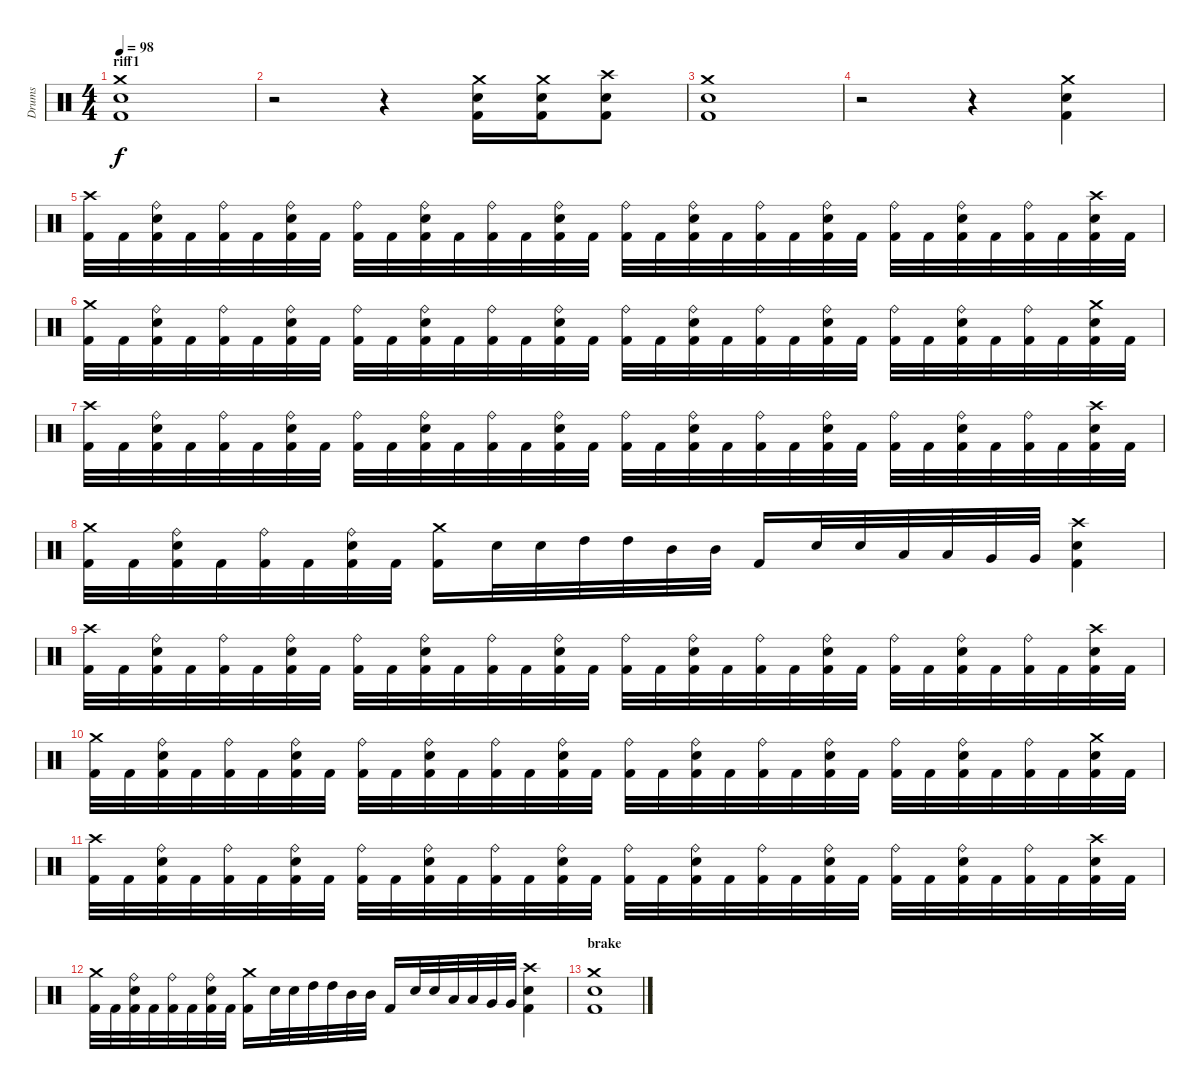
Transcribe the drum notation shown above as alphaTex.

\track ("Drums" "Drums") {instrument percussion}
\staff {score}
\articulation defaults
\ts (4 4)
\section ("" "riff1")
\tempo 98
\clef neutral
\ks c
("Crash medium (hit)" "Electric Snare (hit)" "Kick (hit) 2").1{dy f} |
r.2 r.4 ("Crash medium (hit)" "Electric Snare (hit)" "Kick (hit) 2").16 ("Crash medium (hit)" "Electric Snare (hit)" "Kick (hit) 2").16 ("Crash high (hit)" "Electric Snare (hit)" "Kick (hit) 2").8 |
("Crash medium (hit)" "Electric Snare (hit)" "Kick (hit) 2").1 |
r.2 r.4 ("Crash medium (hit)" "Electric Snare (hit)" "Kick (hit) 2").4 |
("Crash high (hit)" "Kick (hit) 2").32 "Kick (hit) 2".32 ("Ride (bell)" "Electric Snare (hit)" "Kick (hit) 2").32 "Kick (hit) 2".32 ("Ride (bell)" "Kick (hit) 2").32 "Kick (hit) 2".32 ("Ride (bell)" "Electric Snare (hit)" "Kick (hit) 2").32 "Kick (hit) 2".32 ("Ride (bell)" "Kick (hit) 2").32 "Kick (hit) 2".32 ("Ride (bell)" "Electric Snare (hit)" "Kick (hit) 2").32 "Kick (hit) 2".32 ("Ride (bell)" "Kick (hit) 2").32 "Kick (hit) 2".32 ("Ride (bell)" "Electric Snare (hit)" "Kick (hit) 2").32 "Kick (hit) 2".32 ("Ride (bell)" "Kick (hit) 2").32 "Kick (hit) 2".32 ("Ride (bell)" "Electric Snare (hit)" "Kick (hit) 2").32 "Kick (hit) 2".32 ("Ride (bell)" "Kick (hit) 2").32 "Kick (hit) 2".32 ("Ride (bell)" "Electric Snare (hit)" "Kick (hit) 2").32 "Kick (hit) 2".32 ("Ride (bell)" "Kick (hit) 2").32 "Kick (hit) 2".32 ("Ride (bell)" "Electric Snare (hit)" "Kick (hit) 2").32 "Kick (hit) 2".32 ("Ride (bell)" "Kick (hit) 2").32 "Kick (hit) 2".32 ("Crash high (hit)" "Electric Snare (hit)" "Kick (hit) 2").32 "Kick (hit) 2".32 |
("Crash medium (hit)" "Kick (hit) 2").32 "Kick (hit) 2".32 ("Ride (bell)" "Electric Snare (hit)" "Kick (hit) 2").32 "Kick (hit) 2".32 ("Ride (bell)" "Kick (hit) 2").32 "Kick (hit) 2".32 ("Ride (bell)" "Electric Snare (hit)" "Kick (hit) 2").32 "Kick (hit) 2".32 ("Ride (bell)" "Kick (hit) 2").32 "Kick (hit) 2".32 ("Ride (bell)" "Electric Snare (hit)" "Kick (hit) 2").32 "Kick (hit) 2".32 ("Ride (bell)" "Kick (hit) 2").32 "Kick (hit) 2".32 ("Ride (bell)" "Electric Snare (hit)" "Kick (hit) 2").32 "Kick (hit) 2".32 ("Ride (bell)" "Kick (hit) 2").32 "Kick (hit) 2".32 ("Ride (bell)" "Electric Snare (hit)" "Kick (hit) 2").32 "Kick (hit) 2".32 ("Ride (bell)" "Kick (hit) 2").32 "Kick (hit) 2".32 ("Ride (bell)" "Electric Snare (hit)" "Kick (hit) 2").32 "Kick (hit) 2".32 ("Ride (bell)" "Kick (hit) 2").32 "Kick (hit) 2".32 ("Ride (bell)" "Electric Snare (hit)" "Kick (hit) 2").32 "Kick (hit) 2".32 ("Ride (bell)" "Kick (hit) 2").32 "Kick (hit) 2".32 ("Crash medium (hit)" "Electric Snare (hit)" "Kick (hit) 2").32 "Kick (hit) 2".32 |
("Crash high (hit)" "Kick (hit) 2").32 "Kick (hit) 2".32 ("Ride (bell)" "Electric Snare (hit)" "Kick (hit) 2").32 "Kick (hit) 2".32 ("Ride (bell)" "Kick (hit) 2").32 "Kick (hit) 2".32 ("Ride (bell)" "Electric Snare (hit)" "Kick (hit) 2").32 "Kick (hit) 2".32 ("Ride (bell)" "Kick (hit) 2").32 "Kick (hit) 2".32 ("Ride (bell)" "Electric Snare (hit)" "Kick (hit) 2").32 "Kick (hit) 2".32 ("Ride (bell)" "Kick (hit) 2").32 "Kick (hit) 2".32 ("Ride (bell)" "Electric Snare (hit)" "Kick (hit) 2").32 "Kick (hit) 2".32 ("Ride (bell)" "Kick (hit) 2").32 "Kick (hit) 2".32 ("Ride (bell)" "Electric Snare (hit)" "Kick (hit) 2").32 "Kick (hit) 2".32 ("Ride (bell)" "Kick (hit) 2").32 "Kick (hit) 2".32 ("Ride (bell)" "Electric Snare (hit)" "Kick (hit) 2").32 "Kick (hit) 2".32 ("Ride (bell)" "Kick (hit) 2").32 "Kick (hit) 2".32 ("Ride (bell)" "Electric Snare (hit)" "Kick (hit) 2").32 "Kick (hit) 2".32 ("Ride (bell)" "Kick (hit) 2").32 "Kick (hit) 2".32 ("Crash high (hit)" "Electric Snare (hit)" "Kick (hit) 2").32 "Kick (hit) 2".32 |
("Crash medium (hit)" "Kick (hit) 2").32 "Kick (hit) 2".32 ("Ride (bell)" "Electric Snare (hit)" "Kick (hit) 2").32 "Kick (hit) 2".32 ("Ride (bell)" "Kick (hit) 2").32 "Kick (hit) 2".32 ("Ride (bell)" "Electric Snare (hit)" "Kick (hit) 2").32 "Kick (hit) 2".32 ("Crash medium (hit)" "Kick (hit) 2").16 "Electric Snare (hit)".32 "Electric Snare (hit)".32 "High Tom (hit)".32 "High Tom (hit)".32 "Mid Tom (hit)".32 "Mid Tom (hit)".32 "Kick (hit) 2".16 "Electric Snare (hit)".32 "Electric Snare (hit)".32 "Low Tom (hit)".32 "Low Tom (hit)".32 "Very Low Tom (hit)".32 "Very Low Tom (hit)".32 ("Crash high (hit)" "Electric Snare (hit)" "Kick (hit) 2").4 |
("Crash high (hit)" "Kick (hit) 2").32 "Kick (hit) 2".32 ("Ride (bell)" "Electric Snare (hit)" "Kick (hit) 2").32 "Kick (hit) 2".32 ("Ride (bell)" "Kick (hit) 2").32 "Kick (hit) 2".32 ("Ride (bell)" "Electric Snare (hit)" "Kick (hit) 2").32 "Kick (hit) 2".32 ("Ride (bell)" "Kick (hit) 2").32 "Kick (hit) 2".32 ("Ride (bell)" "Electric Snare (hit)" "Kick (hit) 2").32 "Kick (hit) 2".32 ("Ride (bell)" "Kick (hit) 2").32 "Kick (hit) 2".32 ("Ride (bell)" "Electric Snare (hit)" "Kick (hit) 2").32 "Kick (hit) 2".32 ("Ride (bell)" "Kick (hit) 2").32 "Kick (hit) 2".32 ("Ride (bell)" "Electric Snare (hit)" "Kick (hit) 2").32 "Kick (hit) 2".32 ("Ride (bell)" "Kick (hit) 2").32 "Kick (hit) 2".32 ("Ride (bell)" "Electric Snare (hit)" "Kick (hit) 2").32 "Kick (hit) 2".32 ("Ride (bell)" "Kick (hit) 2").32 "Kick (hit) 2".32 ("Ride (bell)" "Electric Snare (hit)" "Kick (hit) 2").32 "Kick (hit) 2".32 ("Ride (bell)" "Kick (hit) 2").32 "Kick (hit) 2".32 ("Crash high (hit)" "Electric Snare (hit)" "Kick (hit) 2").32 "Kick (hit) 2".32 |
("Crash medium (hit)" "Kick (hit) 2").32 "Kick (hit) 2".32 ("Ride (bell)" "Electric Snare (hit)" "Kick (hit) 2").32 "Kick (hit) 2".32 ("Ride (bell)" "Kick (hit) 2").32 "Kick (hit) 2".32 ("Ride (bell)" "Electric Snare (hit)" "Kick (hit) 2").32 "Kick (hit) 2".32 ("Ride (bell)" "Kick (hit) 2").32 "Kick (hit) 2".32 ("Ride (bell)" "Electric Snare (hit)" "Kick (hit) 2").32 "Kick (hit) 2".32 ("Ride (bell)" "Kick (hit) 2").32 "Kick (hit) 2".32 ("Ride (bell)" "Electric Snare (hit)" "Kick (hit) 2").32 "Kick (hit) 2".32 ("Ride (bell)" "Kick (hit) 2").32 "Kick (hit) 2".32 ("Ride (bell)" "Electric Snare (hit)" "Kick (hit) 2").32 "Kick (hit) 2".32 ("Ride (bell)" "Kick (hit) 2").32 "Kick (hit) 2".32 ("Ride (bell)" "Electric Snare (hit)" "Kick (hit) 2").32 "Kick (hit) 2".32 ("Ride (bell)" "Kick (hit) 2").32 "Kick (hit) 2".32 ("Ride (bell)" "Electric Snare (hit)" "Kick (hit) 2").32 "Kick (hit) 2".32 ("Ride (bell)" "Kick (hit) 2").32 "Kick (hit) 2".32 ("Crash medium (hit)" "Electric Snare (hit)" "Kick (hit) 2").32 "Kick (hit) 2".32 |
("Crash high (hit)" "Kick (hit) 2").32 "Kick (hit) 2".32 ("Ride (bell)" "Electric Snare (hit)" "Kick (hit) 2").32 "Kick (hit) 2".32 ("Ride (bell)" "Kick (hit) 2").32 "Kick (hit) 2".32 ("Ride (bell)" "Electric Snare (hit)" "Kick (hit) 2").32 "Kick (hit) 2".32 ("Ride (bell)" "Kick (hit) 2").32 "Kick (hit) 2".32 ("Ride (bell)" "Electric Snare (hit)" "Kick (hit) 2").32 "Kick (hit) 2".32 ("Ride (bell)" "Kick (hit) 2").32 "Kick (hit) 2".32 ("Ride (bell)" "Electric Snare (hit)" "Kick (hit) 2").32 "Kick (hit) 2".32 ("Ride (bell)" "Kick (hit) 2").32 "Kick (hit) 2".32 ("Ride (bell)" "Electric Snare (hit)" "Kick (hit) 2").32 "Kick (hit) 2".32 ("Ride (bell)" "Kick (hit) 2").32 "Kick (hit) 2".32 ("Ride (bell)" "Electric Snare (hit)" "Kick (hit) 2").32 "Kick (hit) 2".32 ("Ride (bell)" "Kick (hit) 2").32 "Kick (hit) 2".32 ("Ride (bell)" "Electric Snare (hit)" "Kick (hit) 2").32 "Kick (hit) 2".32 ("Ride (bell)" "Kick (hit) 2").32 "Kick (hit) 2".32 ("Crash high (hit)" "Electric Snare (hit)" "Kick (hit) 2").32 "Kick (hit) 2".32 |
("Crash medium (hit)" "Kick (hit) 2").32 "Kick (hit) 2".32 ("Ride (bell)" "Electric Snare (hit)" "Kick (hit) 2").32 "Kick (hit) 2".32 ("Ride (bell)" "Kick (hit) 2").32 "Kick (hit) 2".32 ("Ride (bell)" "Electric Snare (hit)" "Kick (hit) 2").32 "Kick (hit) 2".32 ("Crash medium (hit)" "Kick (hit) 2").16 "Electric Snare (hit)".32 "Electric Snare (hit)".32 "High Tom (hit)".32 "High Tom (hit)".32 "Mid Tom (hit)".32 "Mid Tom (hit)".32 "Kick (hit) 2".16 "Electric Snare (hit)".32 "Electric Snare (hit)".32 "Low Tom (hit)".32 "Low Tom (hit)".32 "Very Low Tom (hit)".32 "Very Low Tom (hit)".32 ("Crash high (hit)" "Electric Snare (hit)" "Kick (hit) 2").4 |
\section ("" "brake")
("Crash medium (hit)" "Electric Snare (hit)" "Kick (hit) 2").1
